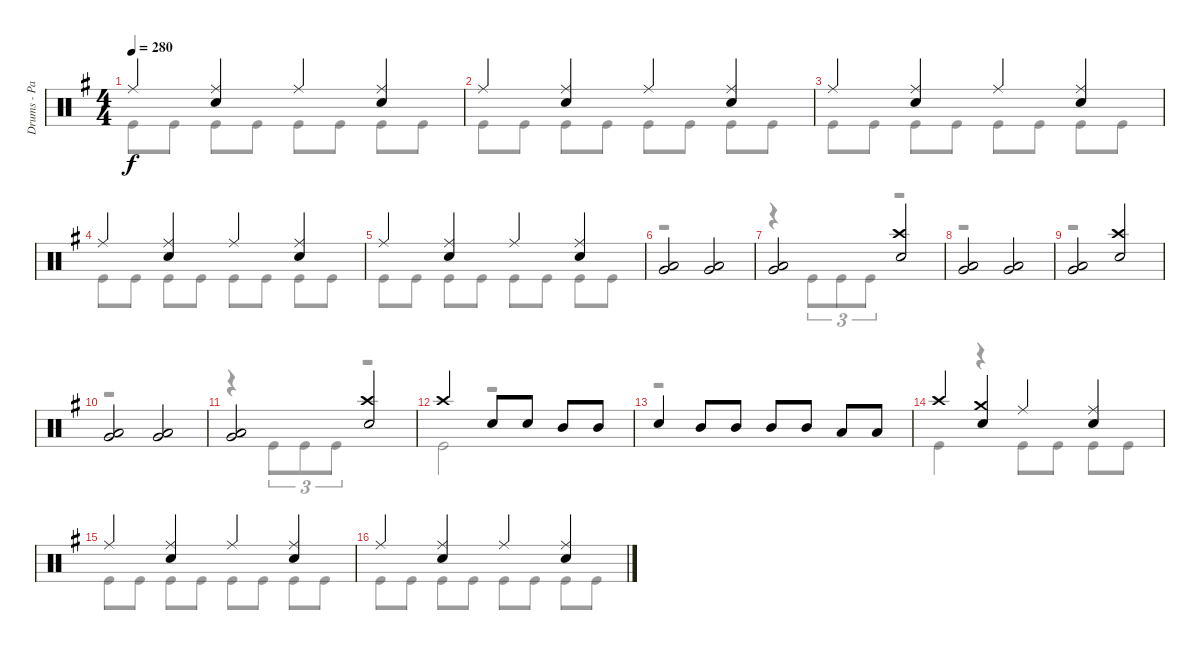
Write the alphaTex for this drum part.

\track ("Drums - Patrick Johansson" "Drums - Pa") {instrument percussion}
\staff {score}
\articulation defaults
\voice
\ts (4 4)
\tempo 280
\clef neutral
\ks eminor "Ride (middle)".4{dy f}
("Ride (middle)" "Snare (hit) 2").4 "Ride (middle)".4 ("Ride (middle)" "Snare (hit) 2").4 |
"Ride (middle)".4 ("Ride (middle)" "Snare (hit) 2").4 "Ride (middle)".4 ("Ride (middle)" "Snare (hit) 2").4 |
"Ride (middle)".4 ("Ride (middle)" "Snare (hit) 2").4 "Ride (middle)".4 ("Ride (middle)" "Snare (hit) 2").4 |
"Ride (middle)".4 ("Ride (middle)" "Snare (hit) 2").4 "Ride (middle)".4 ("Ride (middle)" "Snare (hit) 2").4 |
"Ride (middle)".4 ("Ride (middle)" "Snare (hit) 2").4 "Ride (middle)".4 ("Ride (middle)" "Snare (hit) 2").4 |
("Very Low Tom (hit)" "Low Tom (hit)").2 ("Very Low Tom (hit)" "Low Tom (hit)").2 |
("Very Low Tom (hit)" "Low Tom (hit)").2 ("Crash high (hit)" "Snare (hit) 2").2 |
("Very Low Tom (hit)" "Low Tom (hit)").2 ("Very Low Tom (hit)" "Low Tom (hit)").2 |
("Very Low Tom (hit)" "Low Tom (hit)").2 ("Crash high (hit)" "Snare (hit) 2").2 |
("Very Low Tom (hit)" "Low Tom (hit)").2 ("Very Low Tom (hit)" "Low Tom (hit)").2 |
("Very Low Tom (hit)" "Low Tom (hit)").2 ("Crash high (hit)" "Snare (hit) 2").2 |
"Crash high (hit)".2 "Snare (hit) 2".8 "Snare (hit) 2".8 "Mid Tom (hit)".8 "Mid Tom (hit)".8 |
"Snare (hit) 2".4 "Mid Tom (hit)".8 "Mid Tom (hit)".8 "Mid Tom (hit)".8 "Mid Tom (hit)".8 "Low Tom (hit)".8 "Low Tom (hit)".8 |
"Crash high (hit)".4 ("Crash medium (hit)" "Snare (hit) 2").4 "Ride (middle)".4 ("Ride (middle)" "Snare (hit) 2").4 |
"Ride (middle)".4 ("Ride (middle)" "Snare (hit) 2").4 "Ride (middle)".4 ("Ride (middle)" "Snare (hit) 2").4 |
"Ride (middle)".4 ("Ride (middle)" "Snare (hit) 2").4 "Ride (middle)".4 ("Ride (middle)" "Snare (hit) 2").4
\voice
\clef neutral
\ottava regular
\simile none
\ks eminor "Kick (hit)".8{dy f} "Kick (hit)".8 "Kick (hit)".8 "Kick (hit)".8 "Kick (hit)".8 "Kick (hit)".8 "Kick (hit)".8 "Kick (hit)".8
|
"Kick (hit)".8 "Kick (hit)".8 "Kick (hit)".8 "Kick (hit)".8 "Kick (hit)".8 "Kick (hit)".8 "Kick (hit)".8 "Kick (hit)".8 |
"Kick (hit)".8 "Kick (hit)".8 "Kick (hit)".8 "Kick (hit)".8 "Kick (hit)".8 "Kick (hit)".8 "Kick (hit)".8 "Kick (hit)".8 |
"Kick (hit)".8 "Kick (hit)".8 "Kick (hit)".8 "Kick (hit)".8 "Kick (hit)".8 "Kick (hit)".8 "Kick (hit)".8 "Kick (hit)".8 |
"Kick (hit)".8 "Kick (hit)".8 "Kick (hit)".8 "Kick (hit)".8 "Kick (hit)".8 "Kick (hit)".8 "Kick (hit)".8 "Kick (hit)".8 |
r.1 |
r.4 "Kick (hit)".8{tu (3 2)} "Kick (hit)".8{tu (3 2)} "Kick (hit)".8{tu (3 2)} r.2 |
r.1 |
r.1 |
r.1 |
r.4 "Kick (hit)".8{tu (3 2)} "Kick (hit)".8{tu (3 2)} "Kick (hit)".8{tu (3 2)} r.2 |
"Kick (hit)".2 r.2 |
r.1 |
"Kick (hit)".4 r.4 "Kick (hit)".8 "Kick (hit)".8 "Kick (hit)".8 "Kick (hit)".8 |
"Kick (hit)".8 "Kick (hit)".8 "Kick (hit)".8 "Kick (hit)".8 "Kick (hit)".8 "Kick (hit)".8 "Kick (hit)".8 "Kick (hit)".8 |
"Kick (hit)".8 "Kick (hit)".8 "Kick (hit)".8 "Kick (hit)".8 "Kick (hit)".8 "Kick (hit)".8 "Kick (hit)".8 "Kick (hit)".8
